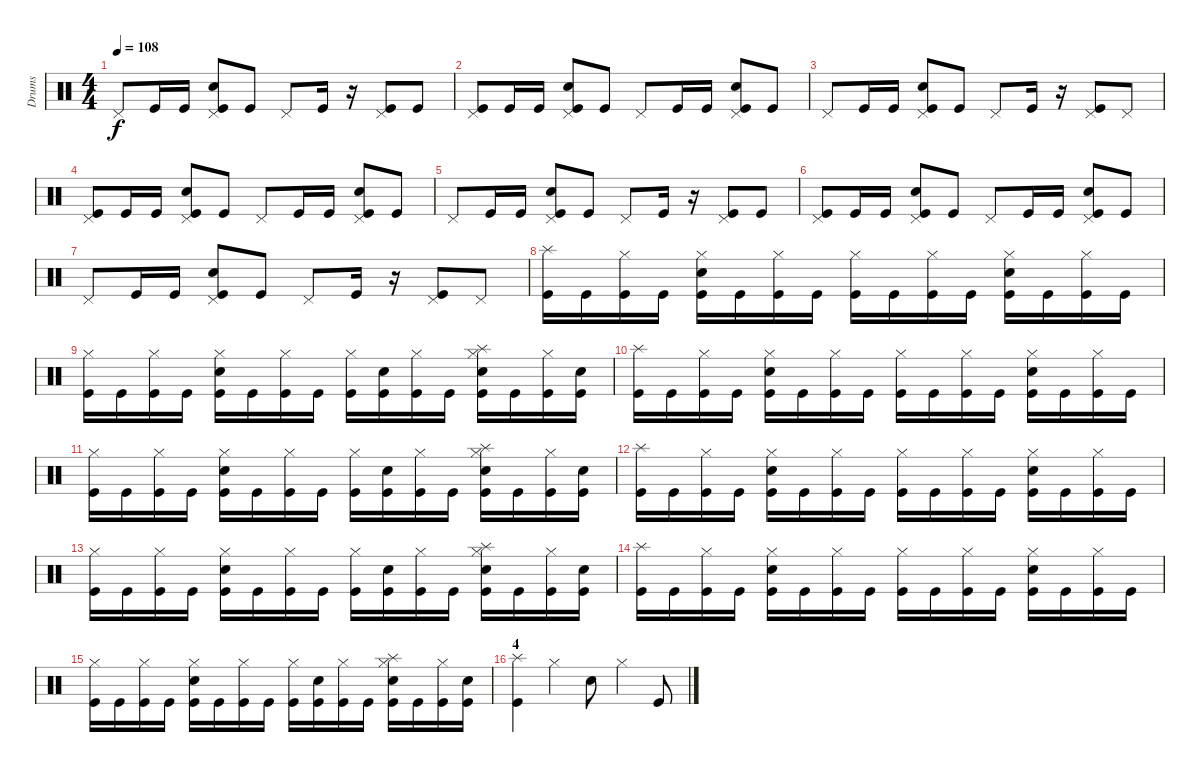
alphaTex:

\track ("Drums" "Drums") {instrument percussion}
\staff {score}
\articulation defaults
\ts (4 4)
\tempo 108
\clef neutral
\ks c "Pedal Hi-Hat (hit)".8{dy f} "Kick (hit)".16 "Kick (hit)".16
("Kick (hit)" "Electric Snare (hit)" "Pedal Hi-Hat (hit)").8 "Kick (hit)".8 "Pedal Hi-Hat (hit)".8 "Kick (hit)".16 r.16 ("Kick (hit)" "Pedal Hi-Hat (hit)").8 "Kick (hit)".8 |
("Kick (hit)" "Pedal Hi-Hat (hit)").8 "Kick (hit)".16 "Kick (hit)".16 ("Kick (hit)" "Electric Snare (hit)" "Pedal Hi-Hat (hit)").8 "Kick (hit)".8 "Pedal Hi-Hat (hit)".8 "Kick (hit)".16 "Kick (hit)".16 ("Kick (hit)" "Electric Snare (hit)" "Pedal Hi-Hat (hit)").8 "Kick (hit)".8 |
"Pedal Hi-Hat (hit)".8 "Kick (hit)".16 "Kick (hit)".16 ("Kick (hit)" "Electric Snare (hit)" "Pedal Hi-Hat (hit)").8 "Kick (hit)".8 "Pedal Hi-Hat (hit)".8 "Kick (hit)".16 r.16 ("Kick (hit)" "Pedal Hi-Hat (hit)").8 "Pedal Hi-Hat (hit)".8 |
("Kick (hit)" "Pedal Hi-Hat (hit)").8 "Kick (hit)".16 "Kick (hit)".16 ("Kick (hit)" "Electric Snare (hit)" "Pedal Hi-Hat (hit)").8 "Kick (hit)".8 "Pedal Hi-Hat (hit)".8 "Kick (hit)".16 "Kick (hit)".16 ("Kick (hit)" "Electric Snare (hit)" "Pedal Hi-Hat (hit)").8 "Kick (hit)".8 |
"Pedal Hi-Hat (hit)".8 "Kick (hit)".16 "Kick (hit)".16 ("Kick (hit)" "Electric Snare (hit)" "Pedal Hi-Hat (hit)").8 "Kick (hit)".8 "Pedal Hi-Hat (hit)".8 "Kick (hit)".16 r.16 ("Kick (hit)" "Pedal Hi-Hat (hit)").8 "Kick (hit)".8 |
("Kick (hit)" "Pedal Hi-Hat (hit)").8 "Kick (hit)".16 "Kick (hit)".16 ("Kick (hit)" "Electric Snare (hit)" "Pedal Hi-Hat (hit)").8 "Kick (hit)".8 "Pedal Hi-Hat (hit)".8 "Kick (hit)".16 "Kick (hit)".16 ("Kick (hit)" "Electric Snare (hit)" "Pedal Hi-Hat (hit)").8 "Kick (hit)".8 |
"Pedal Hi-Hat (hit)".8 "Kick (hit)".16 "Kick (hit)".16 ("Kick (hit)" "Electric Snare (hit)" "Pedal Hi-Hat (hit)").8 "Kick (hit)".8 "Pedal Hi-Hat (hit)".8 "Kick (hit)".16 r.16 ("Kick (hit)" "Pedal Hi-Hat (hit)").8 "Pedal Hi-Hat (hit)".8 |
("Kick (hit)" "Splash (hit)").16{volume 12} "Kick (hit)".16 ("Kick (hit)" "Hi-Hat (closed)").16 "Kick (hit)".16 ("Kick (hit)" "Electric Snare (hit)" "Hi-Hat (closed)").16 "Kick (hit)".16 ("Kick (hit)" "Hi-Hat (closed)").16 "Kick (hit)".16 ("Kick (hit)" "Hi-Hat (closed)").16 "Kick (hit)".16 ("Kick (hit)" "Hi-Hat (closed)").16 "Kick (hit)".16 ("Kick (hit)" "Electric Snare (hit)" "Hi-Hat (closed)").16 "Kick (hit)".16 ("Kick (hit)" "Hi-Hat (closed)").16 "Kick (hit)".16 |
("Kick (hit)" "Hi-Hat (closed)").16 "Kick (hit)".16 ("Kick (hit)" "Hi-Hat (closed)").16 "Kick (hit)".16 ("Kick (hit)" "Electric Snare (hit)" "Hi-Hat (closed)").16 "Kick (hit)".16 ("Kick (hit)" "Hi-Hat (closed)").16 "Kick (hit)".16 ("Kick (hit)" "Hi-Hat (closed)").16 ("Kick (hit)" "Electric Snare (hit)").16 ("Kick (hit)" "Hi-Hat (closed)").16 "Kick (hit)".16 ("Kick (hit)" "Electric Snare (hit)" "Hi-Hat (closed)" "Splash (hit)").16 "Kick (hit)".16 ("Kick (hit)" "Hi-Hat (closed)").16 ("Kick (hit)" "Electric Snare (hit)").16 |
("Kick (hit)" "Splash (hit)").16 "Kick (hit)".16 ("Kick (hit)" "Hi-Hat (closed)").16 "Kick (hit)".16 ("Kick (hit)" "Electric Snare (hit)" "Hi-Hat (closed)").16 "Kick (hit)".16 ("Kick (hit)" "Hi-Hat (closed)").16 "Kick (hit)".16 ("Kick (hit)" "Hi-Hat (closed)").16 "Kick (hit)".16 ("Kick (hit)" "Hi-Hat (closed)").16 "Kick (hit)".16 ("Kick (hit)" "Electric Snare (hit)" "Hi-Hat (closed)").16 "Kick (hit)".16 ("Kick (hit)" "Hi-Hat (closed)").16 "Kick (hit)".16 |
("Kick (hit)" "Hi-Hat (closed)").16 "Kick (hit)".16 ("Kick (hit)" "Hi-Hat (closed)").16 "Kick (hit)".16 ("Kick (hit)" "Electric Snare (hit)" "Hi-Hat (closed)").16 "Kick (hit)".16 ("Kick (hit)" "Hi-Hat (closed)").16 "Kick (hit)".16 ("Kick (hit)" "Hi-Hat (closed)").16 ("Kick (hit)" "Electric Snare (hit)").16 ("Kick (hit)" "Hi-Hat (closed)").16 "Kick (hit)".16 ("Kick (hit)" "Electric Snare (hit)" "Hi-Hat (closed)" "Splash (hit)").16 "Kick (hit)".16 ("Kick (hit)" "Hi-Hat (closed)").16 ("Kick (hit)" "Electric Snare (hit)").16 |
("Kick (hit)" "Splash (hit)").16 "Kick (hit)".16 ("Kick (hit)" "Hi-Hat (closed)").16 "Kick (hit)".16 ("Kick (hit)" "Electric Snare (hit)" "Hi-Hat (closed)").16 "Kick (hit)".16 ("Kick (hit)" "Hi-Hat (closed)").16 "Kick (hit)".16 ("Kick (hit)" "Hi-Hat (closed)").16 "Kick (hit)".16 ("Kick (hit)" "Hi-Hat (closed)").16 "Kick (hit)".16 ("Kick (hit)" "Electric Snare (hit)" "Hi-Hat (closed)").16 "Kick (hit)".16 ("Kick (hit)" "Hi-Hat (closed)").16 "Kick (hit)".16 |
("Kick (hit)" "Hi-Hat (closed)").16 "Kick (hit)".16 ("Kick (hit)" "Hi-Hat (closed)").16 "Kick (hit)".16 ("Kick (hit)" "Electric Snare (hit)" "Hi-Hat (closed)").16 "Kick (hit)".16 ("Kick (hit)" "Hi-Hat (closed)").16 "Kick (hit)".16 ("Kick (hit)" "Hi-Hat (closed)").16 ("Kick (hit)" "Electric Snare (hit)").16 ("Kick (hit)" "Hi-Hat (closed)").16 "Kick (hit)".16 ("Kick (hit)" "Electric Snare (hit)" "Hi-Hat (closed)" "Splash (hit)").16 "Kick (hit)".16 ("Kick (hit)" "Hi-Hat (closed)").16 ("Kick (hit)" "Electric Snare (hit)").16 |
("Kick (hit)" "Splash (hit)").16 "Kick (hit)".16 ("Kick (hit)" "Hi-Hat (closed)").16 "Kick (hit)".16 ("Kick (hit)" "Electric Snare (hit)" "Hi-Hat (closed)").16 "Kick (hit)".16 ("Kick (hit)" "Hi-Hat (closed)").16 "Kick (hit)".16 ("Kick (hit)" "Hi-Hat (closed)").16 "Kick (hit)".16 ("Kick (hit)" "Hi-Hat (closed)").16 "Kick (hit)".16 ("Kick (hit)" "Electric Snare (hit)" "Hi-Hat (closed)").16 "Kick (hit)".16 ("Kick (hit)" "Hi-Hat (closed)").16 "Kick (hit)".16 |
("Kick (hit)" "Hi-Hat (closed)").16 "Kick (hit)".16 ("Kick (hit)" "Hi-Hat (closed)").16 "Kick (hit)".16 ("Kick (hit)" "Electric Snare (hit)" "Hi-Hat (closed)").16 "Kick (hit)".16 ("Kick (hit)" "Hi-Hat (closed)").16 "Kick (hit)".16 ("Kick (hit)" "Hi-Hat (closed)").16 ("Kick (hit)" "Electric Snare (hit)").16 ("Kick (hit)" "Hi-Hat (closed)").16 "Kick (hit)".16 ("Kick (hit)" "Electric Snare (hit)" "Hi-Hat (closed)" "Splash (hit)").16 "Kick (hit)".16 ("Kick (hit)" "Hi-Hat (closed)").16 ("Kick (hit)" "Electric Snare (hit)").16 |
\section ("" "4")
("Kick (hit)" "Splash (hit)").4{volume 13} "Hi-Hat (closed)".4 "Electric Snare (hit)".8 "Hi-Hat (closed)".4 "Kick (hit)".8
